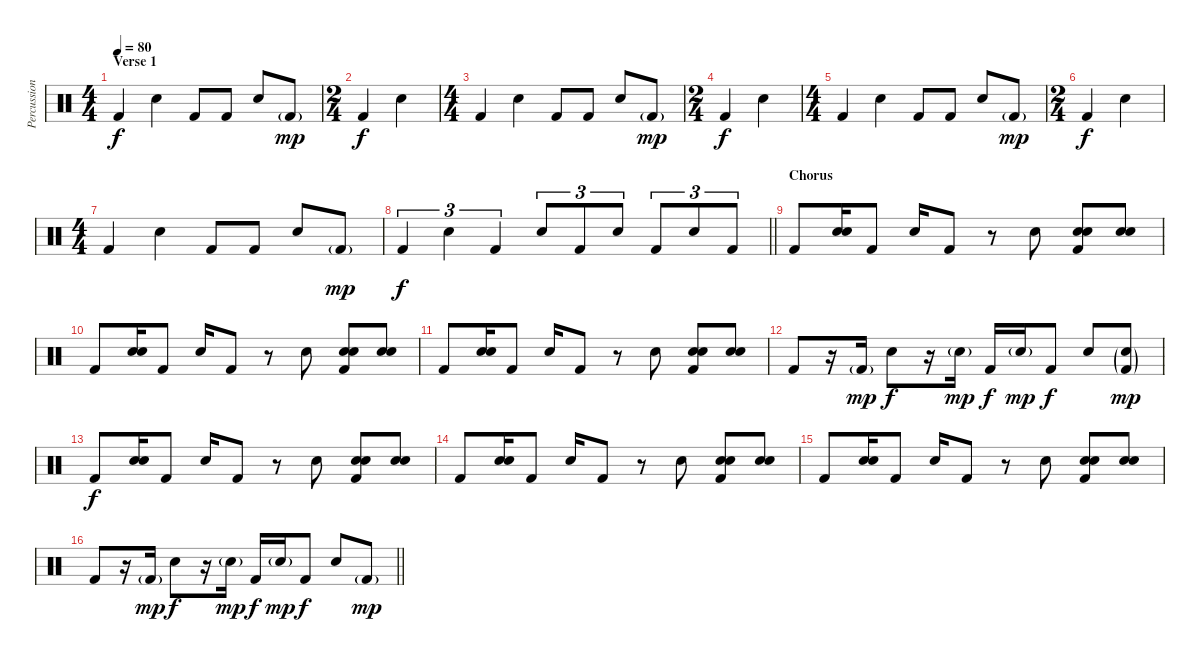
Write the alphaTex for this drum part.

\track ("Percussion" "Percussion") {instrument percussion}
\staff {score}
\articulation defaults
\ts (4 4)
\section ("" "Verse 1")
\tempo 80
\clef neutral
\ks c "Kick (hit) 2".4{dy f} "Snare (hit) 2".4 "Kick (hit) 2".8 "Kick (hit) 2".8 "Snare (hit) 2".8 "Kick (hit) 2"{g}.8{dy mp}
|
\ts (2 4)
"Kick (hit) 2".4{dy f} "Snare (hit) 2".4 |
\ts (4 4)
"Kick (hit) 2".4 "Snare (hit) 2".4 "Kick (hit) 2".8 "Kick (hit) 2".8 "Snare (hit) 2".8 "Kick (hit) 2"{g}.8{dy mp} |
\ts (2 4)
"Kick (hit) 2".4{dy f} "Snare (hit) 2".4 |
\ts (4 4)
"Kick (hit) 2".4 "Snare (hit) 2".4 "Kick (hit) 2".8 "Kick (hit) 2".8 "Snare (hit) 2".8 "Kick (hit) 2"{g}.8{dy mp} |
\ts (2 4)
"Kick (hit) 2".4{dy f} "Snare (hit) 2".4 |
\ts (4 4)
"Kick (hit) 2".4 "Snare (hit) 2".4 "Kick (hit) 2".8 "Kick (hit) 2".8 "Snare (hit) 2".8 "Kick (hit) 2"{g}.8{dy mp} |
\barLineRight lightlight "Kick (hit) 2".4{tu (3 2) dy f} "Snare (hit) 2".4{tu (3 2)} "Kick (hit) 2".4{tu (3 2)} "Snare (hit) 2".8{tu (3 2)} "Kick (hit) 2".8{tu (3 2)} "Snare (hit) 2".8{tu (3 2)} "Kick (hit) 2".8{tu (3 2)} "Snare (hit) 2".8{tu (3 2)} "Kick (hit) 2".8{tu (3 2)}
|
\section ("" "Chorus")
"Kick (hit) 2".8 ("Hand Clap (hit)" "Snare (hit) 2").16 "Kick (hit) 2".8 "Snare (hit) 2".16 "Kick (hit) 2".8 r.8 "Snare (hit) 2".8 ("Hand Clap (hit)" "Snare (hit) 2" "Kick (hit) 2").8 ("Hand Clap (hit)" "Snare (hit) 2").8 |
"Kick (hit) 2".8 ("Hand Clap (hit)" "Snare (hit) 2").16 "Kick (hit) 2".8 "Snare (hit) 2".16 "Kick (hit) 2".8 r.8 "Snare (hit) 2".8 ("Hand Clap (hit)" "Snare (hit) 2" "Kick (hit) 2").8 ("Hand Clap (hit)" "Snare (hit) 2").8 |
"Kick (hit) 2".8 ("Hand Clap (hit)" "Snare (hit) 2").16 "Kick (hit) 2".8 "Snare (hit) 2".16 "Kick (hit) 2".8 r.8 "Snare (hit) 2".8 ("Hand Clap (hit)" "Snare (hit) 2" "Kick (hit) 2").8 ("Hand Clap (hit)" "Snare (hit) 2").8 |
"Kick (hit) 2".8 r.16 "Kick (hit) 2"{g}.16{dy mp} "Snare (hit) 2".8{dy f} r.16 "Snare (hit) 2"{g}.16{dy mp} "Kick (hit) 2".16{dy f} "Snare (hit) 2"{g}.16{dy mp} "Kick (hit) 2".8{dy f} "Snare (hit) 2".8 ("Snare (hit) 2"{g} "Kick (hit) 2"{g}).8{dy mp} |
"Kick (hit) 2".8{dy f} ("Hand Clap (hit)" "Snare (hit) 2").16 "Kick (hit) 2".8 "Snare (hit) 2".16 "Kick (hit) 2".8 r.8 "Snare (hit) 2".8 ("Hand Clap (hit)" "Snare (hit) 2" "Kick (hit) 2").8 ("Hand Clap (hit)" "Snare (hit) 2").8 |
"Kick (hit) 2".8 ("Hand Clap (hit)" "Snare (hit) 2").16 "Kick (hit) 2".8 "Snare (hit) 2".16 "Kick (hit) 2".8 r.8 "Snare (hit) 2".8 ("Hand Clap (hit)" "Snare (hit) 2" "Kick (hit) 2").8 ("Hand Clap (hit)" "Snare (hit) 2").8 |
"Kick (hit) 2".8 ("Hand Clap (hit)" "Snare (hit) 2").16 "Kick (hit) 2".8 "Snare (hit) 2".16 "Kick (hit) 2".8 r.8 "Snare (hit) 2".8 ("Hand Clap (hit)" "Snare (hit) 2" "Kick (hit) 2").8 ("Hand Clap (hit)" "Snare (hit) 2").8 |
\barLineRight lightlight "Kick (hit) 2".8
r.16 "Kick (hit) 2"{g}.16{dy mp} "Snare (hit) 2".8{dy f} r.16 "Snare (hit) 2"{g}.16{dy mp} "Kick (hit) 2".16{dy f} "Snare (hit) 2"{g}.16{dy mp} "Kick (hit) 2".8{dy f} "Snare (hit) 2".8 "Kick (hit) 2"{g}.8{dy mp}
